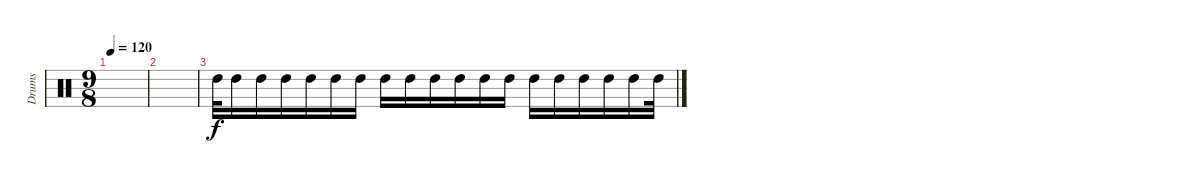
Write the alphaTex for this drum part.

\track ("Drums" "Drums") {instrument percussion}
\staff {score}
\articulation defaults
\ts (9 8)
\tempo 120
\clef neutral
\ks c
|
|
"High Tom (hit)".32{dy f} "High Tom (hit)".16 "High Tom (hit)".16 "High Tom (hit)".16 "High Tom (hit)".16 "High Tom (hit)".16 "High Tom (hit)".16 "High Tom (hit)".16 "High Tom (hit)".16 "High Tom (hit)".16 "High Tom (hit)".16 "High Tom (hit)".16 "High Tom (hit)".16 "High Tom (hit)".16 "High Tom (hit)".16 "High Tom (hit)".16 "High Tom (hit)".16 "High Tom (hit)".16 "High Tom (hit)".32
